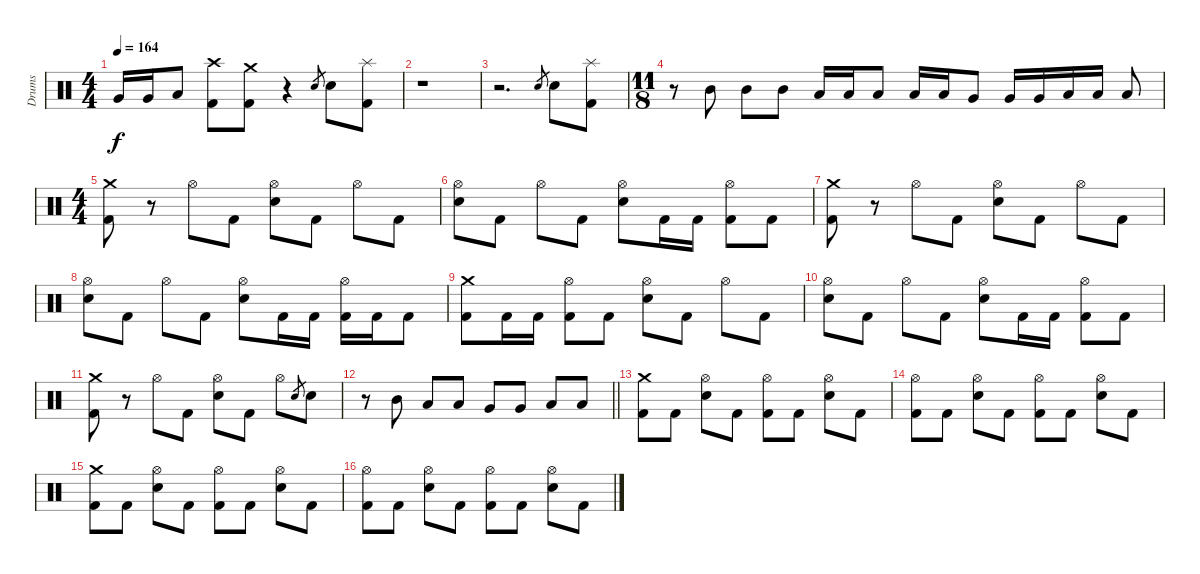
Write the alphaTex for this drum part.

\track ("Drums" "Drums") {instrument percussion}
\staff {score}
\articulation defaults
\ts (4 4)
\tempo 164
\clef neutral
\ks c "Very Low Tom (hit)".16{dy f} "Very Low Tom (hit)".16 "Low Floor Tom (hit)".8
("Crash high (hit)" "Kick (hit) 2").8 ("Crash medium (hit)" "Kick (hit) 2").8 r.4 "Electric Snare (hit)".8{gr} "Electric Snare (hit)".8 ("Splash (hit)" "Kick (hit) 2").8 |
r.1 |
r.2{d} "Electric Snare (hit)".8{gr} "Electric Snare (hit)".8 ("Splash (hit)" "Kick (hit) 2").8 |
\ts (11 8)
r.8 "Mid Tom (hit)".8 "Mid Tom (hit)".8 "Mid Tom (hit)".8 "Low Tom (hit)".16 "Low Tom (hit)".16 "Low Tom (hit)".8 "Low Tom (hit)".16 "Low Tom (hit)".16 "Very Low Tom (hit)".8 "Very Low Tom (hit)".16 "Very Low Tom (hit)".16 "Low Floor Tom (hit)".16 "Low Floor Tom (hit)".16 "Low Floor Tom (hit)".8 |
\ts (4 4)
("Crash medium (hit)" "Kick (hit) 2").8 r.8 "Hi-Hat (open)".8 "Kick (hit) 2".8 ("Hi-Hat (open)" "Electric Snare (hit)").8 "Kick (hit) 2".8 "Hi-Hat (open)".8 "Kick (hit) 2".8 |
("Hi-Hat (open)" "Electric Snare (hit)").8 "Kick (hit) 2".8 "Hi-Hat (open)".8 "Kick (hit) 2".8 ("Hi-Hat (open)" "Electric Snare (hit)").8 "Kick (hit) 2".16 "Kick (hit) 2".16 ("Hi-Hat (open)" "Kick (hit) 2").8 "Kick (hit) 2".8 |
("Crash medium (hit)" "Kick (hit) 2").8 r.8 "Hi-Hat (open)".8 "Kick (hit) 2".8 ("Hi-Hat (open)" "Electric Snare (hit)").8 "Kick (hit) 2".8 "Hi-Hat (open)".8 "Kick (hit) 2".8 |
("Hi-Hat (open)" "Electric Snare (hit)").8 "Kick (hit) 2".8 "Hi-Hat (open)".8 "Kick (hit) 2".8 ("Hi-Hat (open)" "Electric Snare (hit)").8 "Kick (hit) 2".16 "Kick (hit) 2".16 ("Hi-Hat (open)" "Kick (hit) 2").16 "Kick (hit) 2".16 "Kick (hit) 2".8 |
("Crash medium (hit)" "Kick (hit) 2").8 "Kick (hit) 2".16 "Kick (hit) 2".16 ("Hi-Hat (open)" "Kick (hit) 2").8 "Kick (hit) 2".8 ("Hi-Hat (open)" "Electric Snare (hit)").8 "Kick (hit) 2".8 "Hi-Hat (open)".8 "Kick (hit) 2".8 |
("Hi-Hat (open)" "Electric Snare (hit)").8 "Kick (hit) 2".8 "Hi-Hat (open)".8 "Kick (hit) 2".8 ("Hi-Hat (open)" "Electric Snare (hit)").8 "Kick (hit) 2".16 "Kick (hit) 2".16 ("Hi-Hat (open)" "Kick (hit) 2").8 "Kick (hit) 2".8 |
("Crash medium (hit)" "Kick (hit) 2").8 r.8 "Hi-Hat (open)".8 "Kick (hit) 2".8 ("Hi-Hat (open)" "Electric Snare (hit)").8 "Kick (hit) 2".8 "Hi-Hat (open)".8 "Electric Snare (hit)".8{gr} "Electric Snare (hit)".8 |
\barLineRight lightlight
r.8 "Mid Tom (hit)".8 "Low Tom (hit)".8 "Low Tom (hit)".8 "Very Low Tom (hit)".8 "Very Low Tom (hit)".8 "Low Floor Tom (hit)".8 "Low Floor Tom (hit)".8 |
("Crash medium (hit)" "Kick (hit) 2").8 "Kick (hit) 2".8 ("Hi-Hat (open)" "Electric Snare (hit)").8 "Kick (hit) 2".8 ("Hi-Hat (open)" "Kick (hit) 2").8 "Kick (hit) 2".8 ("Hi-Hat (open)" "Electric Snare (hit)").8 "Kick (hit) 2".8 |
("Hi-Hat (open)" "Kick (hit) 2").8 "Kick (hit) 2".8 ("Hi-Hat (open)" "Electric Snare (hit)").8 "Kick (hit) 2".8 ("Hi-Hat (open)" "Kick (hit) 2").8 "Kick (hit) 2".8 ("Hi-Hat (open)" "Electric Snare (hit)").8 "Kick (hit) 2".8 |
("Crash medium (hit)" "Kick (hit) 2").8 "Kick (hit) 2".8 ("Hi-Hat (open)" "Electric Snare (hit)").8 "Kick (hit) 2".8 ("Hi-Hat (open)" "Kick (hit) 2").8 "Kick (hit) 2".8 ("Hi-Hat (open)" "Electric Snare (hit)").8 "Kick (hit) 2".8 |
("Hi-Hat (open)" "Kick (hit) 2").8 "Kick (hit) 2".8 ("Hi-Hat (open)" "Electric Snare (hit)").8 "Kick (hit) 2".8 ("Hi-Hat (open)" "Kick (hit) 2").8 "Kick (hit) 2".8 ("Hi-Hat (open)" "Electric Snare (hit)").8 "Kick (hit) 2".8
